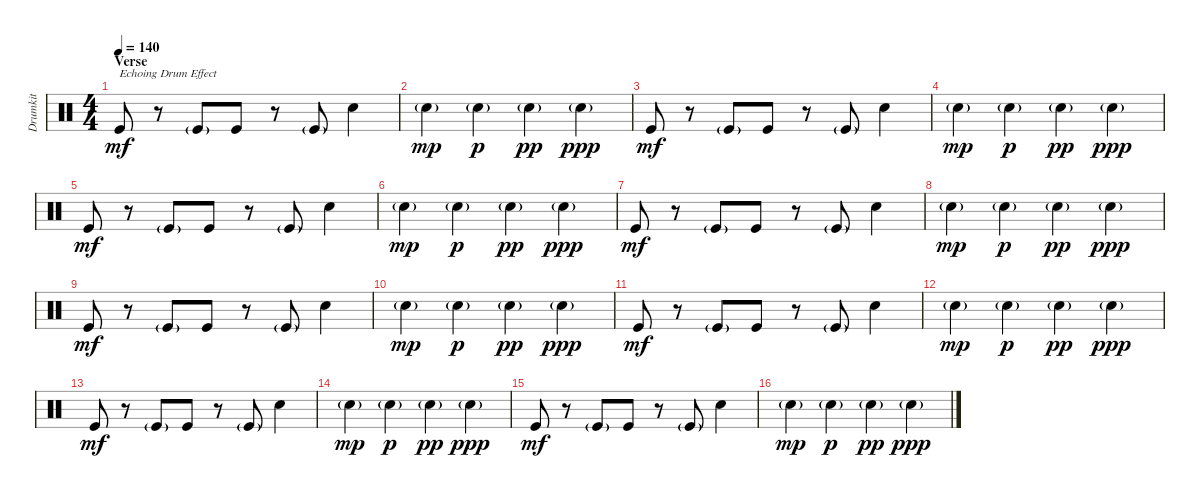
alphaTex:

\track ("Drumkit" "Drumkit") {instrument percussion}
\staff {score}
\articulation defaults
\ts (4 4)
\section ("" "Verse")
\tempo 140
\clef neutral
\ks c "Kick (hit)".8{txt "Echoing Drum Effect" dy mf}
r.8 "Kick (hit)"{g}.8 "Kick (hit)".8 r.8 "Kick (hit)"{g}.8 "Snare (hit) 2".4 |
"Snare (hit) 2"{g}.4{dy mp} "Snare (hit) 2"{g}.4{dy p} "Snare (hit) 2"{g}.4{dy pp} "Snare (hit) 2"{g}.4{dy ppp} |
"Kick (hit)".8{dy mf} r.8 "Kick (hit)"{g}.8 "Kick (hit)".8 r.8 "Kick (hit)"{g}.8 "Snare (hit) 2".4 |
"Snare (hit) 2"{g}.4{dy mp} "Snare (hit) 2"{g}.4{dy p} "Snare (hit) 2"{g}.4{dy pp} "Snare (hit) 2"{g}.4{dy ppp} |
"Kick (hit)".8{dy mf} r.8 "Kick (hit)"{g}.8 "Kick (hit)".8 r.8 "Kick (hit)"{g}.8 "Snare (hit) 2".4 |
"Snare (hit) 2"{g}.4{dy mp} "Snare (hit) 2"{g}.4{dy p} "Snare (hit) 2"{g}.4{dy pp} "Snare (hit) 2"{g}.4{dy ppp} |
"Kick (hit)".8{dy mf} r.8 "Kick (hit)"{g}.8 "Kick (hit)".8 r.8 "Kick (hit)"{g}.8 "Snare (hit) 2".4 |
"Snare (hit) 2"{g}.4{dy mp} "Snare (hit) 2"{g}.4{dy p} "Snare (hit) 2"{g}.4{dy pp} "Snare (hit) 2"{g}.4{dy ppp} |
"Kick (hit)".8{dy mf} r.8 "Kick (hit)"{g}.8 "Kick (hit)".8 r.8 "Kick (hit)"{g}.8 "Snare (hit) 2".4 |
"Snare (hit) 2"{g}.4{dy mp} "Snare (hit) 2"{g}.4{dy p} "Snare (hit) 2"{g}.4{dy pp} "Snare (hit) 2"{g}.4{dy ppp} |
"Kick (hit)".8{dy mf} r.8 "Kick (hit)"{g}.8 "Kick (hit)".8 r.8 "Kick (hit)"{g}.8 "Snare (hit) 2".4 |
"Snare (hit) 2"{g}.4{dy mp} "Snare (hit) 2"{g}.4{dy p} "Snare (hit) 2"{g}.4{dy pp} "Snare (hit) 2"{g}.4{dy ppp} |
"Kick (hit)".8{dy mf} r.8 "Kick (hit)"{g}.8 "Kick (hit)".8 r.8 "Kick (hit)"{g}.8 "Snare (hit) 2".4 |
"Snare (hit) 2"{g}.4{dy mp} "Snare (hit) 2"{g}.4{dy p} "Snare (hit) 2"{g}.4{dy pp} "Snare (hit) 2"{g}.4{dy ppp} |
"Kick (hit)".8{dy mf} r.8 "Kick (hit)"{g}.8 "Kick (hit)".8 r.8 "Kick (hit)"{g}.8 "Snare (hit) 2".4 |
"Snare (hit) 2"{g}.4{dy mp} "Snare (hit) 2"{g}.4{dy p} "Snare (hit) 2"{g}.4{dy pp} "Snare (hit) 2"{g}.4{dy ppp}
